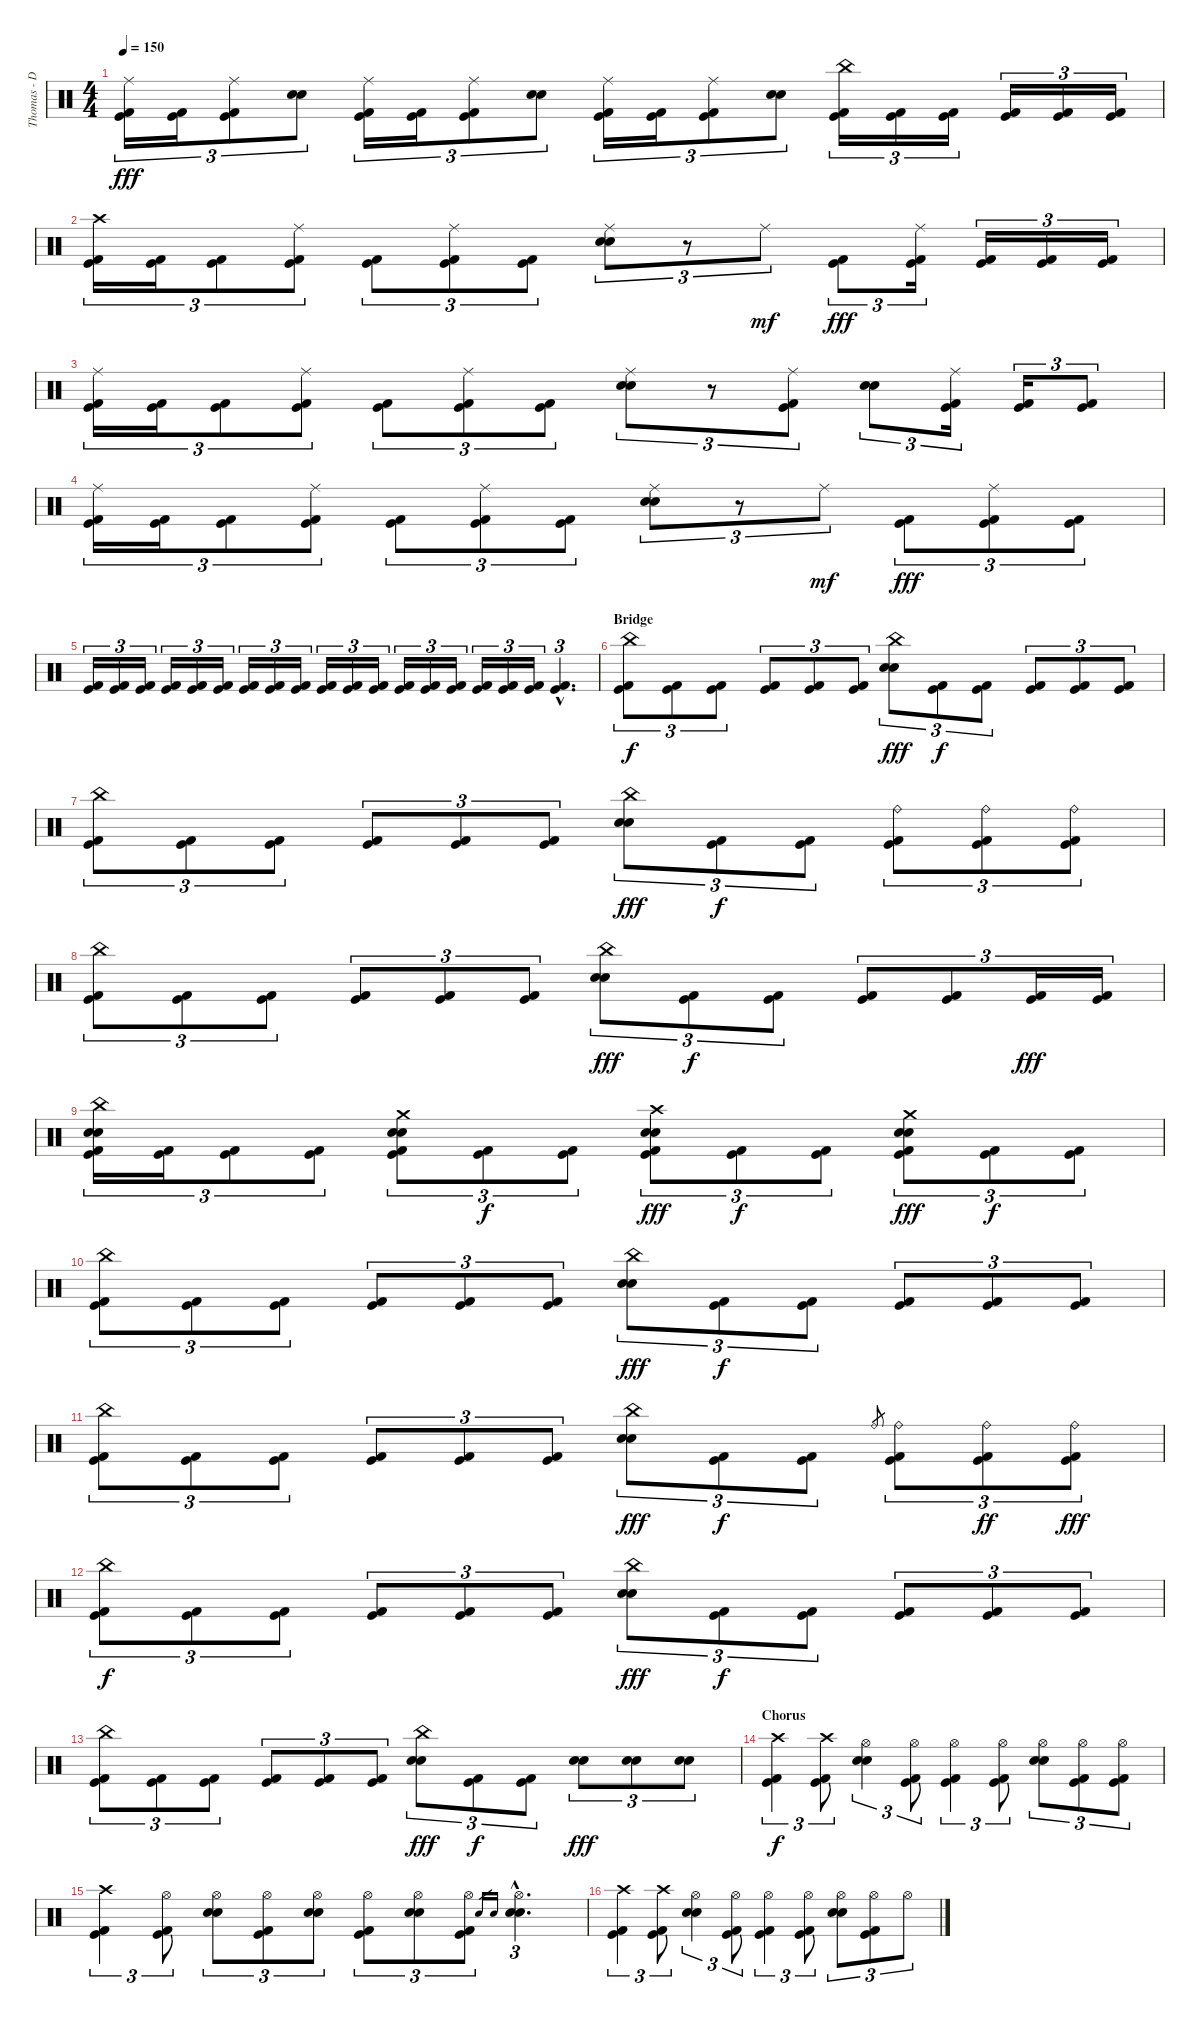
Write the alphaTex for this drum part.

\track ("Thomas - Drums" "Thomas - D") {instrument percussion}
\staff {score}
\articulation defaults
\ts (4 4)
\tempo 150
\clef neutral
\ks c
("Ride (middle)" "Kick (hit)" "Kick (hit) 2").16{tu (3 2) dy fff} ("Kick (hit)" "Kick (hit) 2").16{tu (3 2)} ("Ride (middle)" "Kick (hit)" "Kick (hit) 2").8{tu (3 2)} ("Electric Snare (hit)" "Electric Snare (hit)").8{tu (3 2)} ("Ride (middle)" "Kick (hit)" "Kick (hit) 2").16{tu (3 2)} ("Kick (hit)" "Kick (hit) 2").16{tu (3 2)} ("Ride (middle)" "Kick (hit)" "Kick (hit) 2").8{tu (3 2)} ("Electric Snare (hit)" "Electric Snare (hit)").8{tu (3 2)} ("Ride (middle)" "Kick (hit)" "Kick (hit) 2").16{tu (3 2)} ("Kick (hit)" "Kick (hit) 2").16{tu (3 2)} ("Ride (middle)" "Kick (hit)" "Kick (hit) 2").8{tu (3 2)} ("Electric Snare (hit)" "Electric Snare (hit)").8{tu (3 2)} ("China (hit)" "Kick (hit)" "Kick (hit) 2").16{tu (3 2)} ("Kick (hit)" "Kick (hit) 2").16{tu (3 2)} ("Kick (hit)" "Kick (hit) 2").16{tu (3 2)} ("Kick (hit)" "Kick (hit) 2").16{tu (3 2)} ("Kick (hit)" "Kick (hit) 2").16{tu (3 2)} ("Kick (hit)" "Kick (hit) 2").16{tu (3 2)} |
("Crash high (hit)" "Kick (hit)" "Kick (hit) 2").16{tu (3 2)} ("Kick (hit)" "Kick (hit) 2").16{tu (3 2)} ("Kick (hit)" "Kick (hit) 2").8{tu (3 2)} ("Ride (middle)" "Kick (hit)" "Kick (hit) 2").8{tu (3 2)} ("Kick (hit)" "Kick (hit) 2").8{tu (3 2)} ("Ride (middle)" "Kick (hit)" "Kick (hit) 2").8{tu (3 2)} ("Kick (hit)" "Kick (hit) 2").8{tu (3 2)} ("Ride (middle)" "Electric Snare (hit)" "Electric Snare (hit)").8{tu (3 2)} r.8{tu (3 2)} "Ride (middle)".8{tu (3 2) dy mf} ("Kick (hit)" "Kick (hit) 2").8{tu (3 2) dy fff} ("Ride (middle)" "Kick (hit)" "Kick (hit) 2").16{tu (3 2)} ("Kick (hit)" "Kick (hit) 2").16{tu (3 2)} ("Kick (hit)" "Kick (hit) 2").16{tu (3 2)} ("Kick (hit)" "Kick (hit) 2").16{tu (3 2)} |
("Ride (middle)" "Kick (hit)" "Kick (hit) 2").16{tu (3 2)} ("Kick (hit)" "Kick (hit) 2").16{tu (3 2)} ("Kick (hit)" "Kick (hit) 2").8{tu (3 2)} ("Ride (middle)" "Kick (hit)" "Kick (hit) 2").8{tu (3 2)} ("Kick (hit)" "Kick (hit) 2").8{tu (3 2)} ("Ride (middle)" "Kick (hit)" "Kick (hit) 2").8{tu (3 2)} ("Kick (hit)" "Kick (hit) 2").8{tu (3 2)} ("Ride (middle)" "Electric Snare (hit)" "Electric Snare (hit)").8{tu (3 2)} r.8{tu (3 2)} ("Ride (middle)" "Kick (hit)" "Kick (hit) 2").8{tu (3 2)} ("Electric Snare (hit)" "Electric Snare (hit)").8{tu (3 2)} ("Ride (middle)" "Kick (hit)" "Kick (hit) 2").16{tu (3 2)} ("Kick (hit)" "Kick (hit) 2").16{tu (3 2)} ("Kick (hit)" "Kick (hit) 2").8{tu (3 2)} |
("Ride (middle)" "Kick (hit)" "Kick (hit) 2").16{tu (3 2)} ("Kick (hit)" "Kick (hit) 2").16{tu (3 2)} ("Kick (hit)" "Kick (hit) 2").8{tu (3 2)} ("Ride (middle)" "Kick (hit)" "Kick (hit) 2").8{tu (3 2)} ("Kick (hit)" "Kick (hit) 2").8{tu (3 2)} ("Ride (middle)" "Kick (hit)" "Kick (hit) 2").8{tu (3 2)} ("Kick (hit)" "Kick (hit) 2").8{tu (3 2)} ("Ride (middle)" "Electric Snare (hit)" "Electric Snare (hit)").8{tu (3 2)} r.8{tu (3 2)} "Ride (middle)".8{tu (3 2) dy mf} ("Kick (hit)" "Kick (hit) 2").8{tu (3 2) dy fff} ("Ride (middle)" "Kick (hit)" "Kick (hit) 2").8{tu (3 2)} ("Kick (hit)" "Kick (hit) 2").8{tu (3 2)} |
("Kick (hit)" "Kick (hit) 2").16{tu (3 2)} ("Kick (hit)" "Kick (hit) 2").16{tu (3 2)} ("Kick (hit)" "Kick (hit) 2").16{tu (3 2)} ("Kick (hit)" "Kick (hit) 2").16{tu (3 2)} ("Kick (hit)" "Kick (hit) 2").16{tu (3 2)} ("Kick (hit)" "Kick (hit) 2").16{tu (3 2)} ("Kick (hit)" "Kick (hit) 2").16{tu (3 2)} ("Kick (hit)" "Kick (hit) 2").16{tu (3 2)} ("Kick (hit)" "Kick (hit) 2").16{tu (3 2)} ("Kick (hit)" "Kick (hit) 2").16{tu (3 2)} ("Kick (hit)" "Kick (hit) 2").16{tu (3 2)} ("Kick (hit)" "Kick (hit) 2").16{tu (3 2)} ("Kick (hit)" "Kick (hit) 2").16{tu (3 2)} ("Kick (hit)" "Kick (hit) 2").16{tu (3 2)} ("Kick (hit)" "Kick (hit) 2").16{tu (3 2)} ("Kick (hit)" "Kick (hit) 2").16{tu (3 2)} ("Kick (hit)" "Kick (hit) 2").16{tu (3 2)} ("Kick (hit)" "Kick (hit) 2").16{tu (3 2)} ("Kick (hit)"{hac} "Kick (hit) 2"{hac}).4{d tu (3 2)} |
\section ("" "Bridge")
("China (hit)" "Kick (hit)" "Kick (hit) 2").8{tu (3 2) dy f} ("Kick (hit)" "Kick (hit) 2").8{tu (3 2)} ("Kick (hit)" "Kick (hit) 2").8{tu (3 2)} ("Kick (hit)" "Kick (hit) 2").8{tu (3 2)} ("Kick (hit)" "Kick (hit) 2").8{tu (3 2)} ("Kick (hit)" "Kick (hit) 2").8{tu (3 2)} ("China (hit)" "Electric Snare (hit)" "Electric Snare (hit)").8{tu (3 2) dy fff} ("Kick (hit)" "Kick (hit) 2").8{tu (3 2) dy f} ("Kick (hit)" "Kick (hit) 2").8{tu (3 2)} ("Kick (hit)" "Kick (hit) 2").8{tu (3 2)} ("Kick (hit)" "Kick (hit) 2").8{tu (3 2)} ("Kick (hit)" "Kick (hit) 2").8{tu (3 2)} |
("China (hit)" "Kick (hit)" "Kick (hit) 2").8{tu (3 2)} ("Kick (hit)" "Kick (hit) 2").8{tu (3 2)} ("Kick (hit)" "Kick (hit) 2").8{tu (3 2)} ("Kick (hit)" "Kick (hit) 2").8{tu (3 2)} ("Kick (hit)" "Kick (hit) 2").8{tu (3 2)} ("Kick (hit)" "Kick (hit) 2").8{tu (3 2)} ("China (hit)" "Electric Snare (hit)" "Electric Snare (hit)").8{tu (3 2) dy fff} ("Kick (hit)" "Kick (hit) 2").8{tu (3 2) dy f} ("Kick (hit)" "Kick (hit) 2").8{tu (3 2)} ("Ride (bell)" "Kick (hit)" "Kick (hit) 2").8{tu (3 2)} ("Ride (bell)" "Kick (hit)" "Kick (hit) 2").8{tu (3 2)} ("Ride (bell)" "Kick (hit)" "Kick (hit) 2").8{tu (3 2)} |
("China (hit)" "Kick (hit)" "Kick (hit) 2").8{tu (3 2)} ("Kick (hit)" "Kick (hit) 2").8{tu (3 2)} ("Kick (hit)" "Kick (hit) 2").8{tu (3 2)} ("Kick (hit)" "Kick (hit) 2").8{tu (3 2)} ("Kick (hit)" "Kick (hit) 2").8{tu (3 2)} ("Kick (hit)" "Kick (hit) 2").8{tu (3 2)} ("China (hit)" "Electric Snare (hit)" "Electric Snare (hit)").8{tu (3 2) dy fff} ("Kick (hit)" "Kick (hit) 2").8{tu (3 2) dy f} ("Kick (hit)" "Kick (hit) 2").8{tu (3 2)} ("Kick (hit)" "Kick (hit) 2").8{tu (3 2)} ("Kick (hit)" "Kick (hit) 2").8{tu (3 2)} ("Kick (hit)" "Kick (hit) 2").16{tu (3 2) dy fff} ("Kick (hit)" "Kick (hit) 2").16{tu (3 2)} |
("China (hit)" "Electric Snare (hit)" "Electric Snare (hit)" "Kick (hit)" "Kick (hit) 2").16{tu (3 2)} ("Kick (hit)" "Kick (hit) 2").16{tu (3 2)} ("Kick (hit)" "Kick (hit) 2").8{tu (3 2)} ("Kick (hit)" "Kick (hit) 2").8{tu (3 2)} ("Crash medium (hit)" "Electric Snare (hit)" "Electric Snare (hit)" "Kick (hit)" "Kick (hit) 2").8{tu (3 2)} ("Kick (hit)" "Kick (hit) 2").8{tu (3 2) dy f} ("Kick (hit)" "Kick (hit) 2").8{tu (3 2)} ("Crash high (hit)" "Electric Snare (hit)" "Electric Snare (hit)" "Kick (hit)" "Kick (hit) 2").8{tu (3 2) dy fff} ("Kick (hit)" "Kick (hit) 2").8{tu (3 2) dy f} ("Kick (hit)" "Kick (hit) 2").8{tu (3 2)} ("Crash medium (hit)" "Electric Snare (hit)" "Electric Snare (hit)" "Kick (hit)" "Kick (hit) 2").8{tu (3 2) dy fff} ("Kick (hit)" "Kick (hit) 2").8{tu (3 2) dy f} ("Kick (hit)" "Kick (hit) 2").8{tu (3 2)} |
("China (hit)" "Kick (hit)" "Kick (hit) 2").8{tu (3 2)} ("Kick (hit)" "Kick (hit) 2").8{tu (3 2)} ("Kick (hit)" "Kick (hit) 2").8{tu (3 2)} ("Kick (hit)" "Kick (hit) 2").8{tu (3 2)} ("Kick (hit)" "Kick (hit) 2").8{tu (3 2)} ("Kick (hit)" "Kick (hit) 2").8{tu (3 2)} ("China (hit)" "Electric Snare (hit)" "Electric Snare (hit)").8{tu (3 2) dy fff} ("Kick (hit)" "Kick (hit) 2").8{tu (3 2) dy f} ("Kick (hit)" "Kick (hit) 2").8{tu (3 2)} ("Kick (hit)" "Kick (hit) 2").8{tu (3 2)} ("Kick (hit)" "Kick (hit) 2").8{tu (3 2)} ("Kick (hit)" "Kick (hit) 2").8{tu (3 2)} |
("China (hit)" "Kick (hit)" "Kick (hit) 2").8{tu (3 2)} ("Kick (hit)" "Kick (hit) 2").8{tu (3 2)} ("Kick (hit)" "Kick (hit) 2").8{tu (3 2)} ("Kick (hit)" "Kick (hit) 2").8{tu (3 2)} ("Kick (hit)" "Kick (hit) 2").8{tu (3 2)} ("Kick (hit)" "Kick (hit) 2").8{tu (3 2)} ("China (hit)" "Electric Snare (hit)" "Electric Snare (hit)").8{tu (3 2) dy fff} ("Kick (hit)" "Kick (hit) 2").8{tu (3 2) dy f} ("Kick (hit)" "Kick (hit) 2").8{tu (3 2)} "Ride (bell)".8{gr} ("Ride (bell)" "Kick (hit)" "Kick (hit) 2").8{tu (3 2)} ("Ride (bell)" "Kick (hit)" "Kick (hit) 2").8{tu (3 2) dy ff} ("Ride (bell)" "Kick (hit)" "Kick (hit) 2").8{tu (3 2) dy fff} |
("China (hit)" "Kick (hit)" "Kick (hit) 2").8{tu (3 2) dy f} ("Kick (hit)" "Kick (hit) 2").8{tu (3 2)} ("Kick (hit)" "Kick (hit) 2").8{tu (3 2)} ("Kick (hit)" "Kick (hit) 2").8{tu (3 2)} ("Kick (hit)" "Kick (hit) 2").8{tu (3 2)} ("Kick (hit)" "Kick (hit) 2").8{tu (3 2)} ("China (hit)" "Electric Snare (hit)" "Electric Snare (hit)").8{tu (3 2) dy fff} ("Kick (hit)" "Kick (hit) 2").8{tu (3 2) dy f} ("Kick (hit)" "Kick (hit) 2").8{tu (3 2)} ("Kick (hit)" "Kick (hit) 2").8{tu (3 2)} ("Kick (hit)" "Kick (hit) 2").8{tu (3 2)} ("Kick (hit)" "Kick (hit) 2").8{tu (3 2)} |
("China (hit)" "Kick (hit)" "Kick (hit) 2").8{tu (3 2)} ("Kick (hit)" "Kick (hit) 2").8{tu (3 2)} ("Kick (hit)" "Kick (hit) 2").8{tu (3 2)} ("Kick (hit)" "Kick (hit) 2").8{tu (3 2)} ("Kick (hit)" "Kick (hit) 2").8{tu (3 2)} ("Kick (hit)" "Kick (hit) 2").8{tu (3 2)} ("China (hit)" "Electric Snare (hit)" "Electric Snare (hit)").8{tu (3 2) dy fff} ("Kick (hit)" "Kick (hit) 2").8{tu (3 2) dy f} ("Kick (hit)" "Kick (hit) 2").8{tu (3 2)} ("Electric Snare (hit)" "Electric Snare (hit)").8{tu (3 2) dy fff} ("Electric Snare (hit)" "Electric Snare (hit)").8{tu (3 2)} ("Electric Snare (hit)" "Electric Snare (hit)").8{tu (3 2)} |
\section ("" "Chorus")
("Crash high (hit)" "Kick (hit)" "Kick (hit) 2").4{tu (3 2) dy f} ("Crash high (hit)" "Kick (hit)" "Kick (hit) 2").8{tu (3 2)} ("Hi-Hat (open)" "Electric Snare (hit)" "Electric Snare (hit)").4{tu (3 2)} ("Hi-Hat (open)" "Kick (hit)" "Kick (hit) 2").8{tu (3 2)} ("Hi-Hat (open)" "Kick (hit)" "Kick (hit) 2").4{tu (3 2)} ("Hi-Hat (open)" "Kick (hit)" "Kick (hit) 2").8{tu (3 2)} ("Hi-Hat (open)" "Electric Snare (hit)" "Electric Snare (hit)").8{tu (3 2)} ("Hi-Hat (open)" "Kick (hit)" "Kick (hit) 2").8{tu (3 2)} ("Hi-Hat (open)" "Kick (hit)" "Kick (hit) 2").8{tu (3 2)} |
("Crash high (hit)" "Kick (hit)" "Kick (hit) 2").4{tu (3 2)} ("Hi-Hat (open)" "Kick (hit)" "Kick (hit) 2").8{tu (3 2)} ("Hi-Hat (open)" "Electric Snare (hit)" "Electric Snare (hit)").8{tu (3 2)} ("Hi-Hat (open)" "Kick (hit)" "Kick (hit) 2").8{tu (3 2)} ("Hi-Hat (open)" "Electric Snare (hit)" "Electric Snare (hit)").8{tu (3 2)} ("Hi-Hat (open)" "Kick (hit)" "Kick (hit) 2").8{tu (3 2)} ("Hi-Hat (open)" "Electric Snare (hit)" "Electric Snare (hit)").8{tu (3 2)} ("Hi-Hat (open)" "Kick (hit)" "Kick (hit) 2").8{tu (3 2)} "Electric Snare (hit)".16{gr} "Electric Snare (hit)".16{gr} ("Hi-Hat (open)"{hac} "Electric Snare (hit)"{hac} "Electric Snare (hit)"{hac}).4{d tu (3 2)} |
("Crash high (hit)" "Kick (hit)" "Kick (hit) 2").4{tu (3 2)} ("Crash high (hit)" "Kick (hit)" "Kick (hit) 2").8{tu (3 2)} ("Hi-Hat (open)" "Electric Snare (hit)" "Electric Snare (hit)").4{tu (3 2)} ("Hi-Hat (open)" "Kick (hit)" "Kick (hit) 2").8{tu (3 2)} ("Hi-Hat (open)" "Kick (hit)" "Kick (hit) 2").4{tu (3 2)} ("Hi-Hat (open)" "Kick (hit)" "Kick (hit) 2").8{tu (3 2)} ("Hi-Hat (open)" "Electric Snare (hit)" "Electric Snare (hit)").8{tu (3 2)} ("Hi-Hat (open)" "Kick (hit)" "Kick (hit) 2").8{tu (3 2)} "Hi-Hat (open)".8{tu (3 2)}
